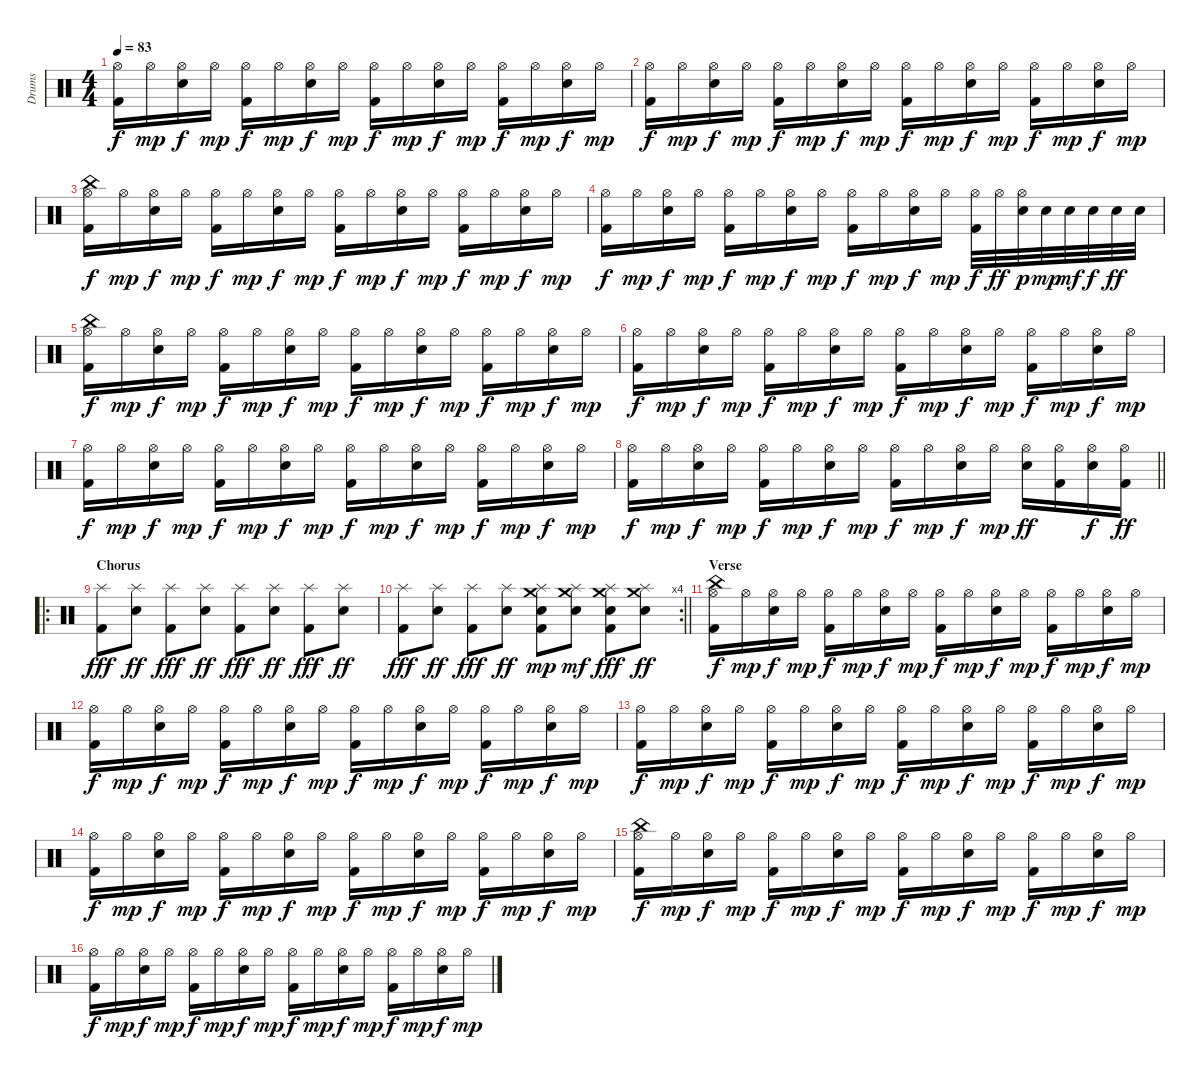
\track ("Drums" "Drums") {instrument percussion}
\staff {score}
\articulation defaults
\ts (4 4)
\tempo 83
\clef neutral
\ks aminor
("Hi-Hat (open)" "Kick (hit) 2").16{dy f} "Hi-Hat (open)".16{dy mp} ("Hi-Hat (open)" "Snare (hit) 2").16{dy f} "Hi-Hat (open)".16{dy mp} ("Hi-Hat (open)" "Kick (hit) 2").16{dy f} "Hi-Hat (open)".16{dy mp} ("Hi-Hat (open)" "Snare (hit) 2").16{dy f} "Hi-Hat (open)".16{dy mp} ("Hi-Hat (open)" "Kick (hit) 2").16{dy f} "Hi-Hat (open)".16{dy mp} ("Hi-Hat (open)" "Snare (hit) 2").16{dy f} "Hi-Hat (open)".16{dy mp} ("Hi-Hat (open)" "Kick (hit) 2").16{dy f} "Hi-Hat (open)".16{dy mp} ("Hi-Hat (open)" "Snare (hit) 2").16{dy f} "Hi-Hat (open)".16{dy mp} |
("Hi-Hat (open)" "Kick (hit) 2").16{dy f} "Hi-Hat (open)".16{dy mp} ("Hi-Hat (open)" "Snare (hit) 2").16{dy f} "Hi-Hat (open)".16{dy mp} ("Hi-Hat (open)" "Kick (hit) 2").16{dy f} "Hi-Hat (open)".16{dy mp} ("Hi-Hat (open)" "Snare (hit) 2").16{dy f} "Hi-Hat (open)".16{dy mp} ("Hi-Hat (open)" "Kick (hit) 2").16{dy f} "Hi-Hat (open)".16{dy mp} ("Hi-Hat (open)" "Snare (hit) 2").16{dy f} "Hi-Hat (open)".16{dy mp} ("Hi-Hat (open)" "Kick (hit) 2").16{dy f} "Hi-Hat (open)".16{dy mp} ("Hi-Hat (open)" "Snare (hit) 2").16{dy f} "Hi-Hat (open)".16{dy mp} |
("Hi-Hat (open)" "Kick (hit) 2" "China (hit)").16{dy f} "Hi-Hat (open)".16{dy mp} ("Hi-Hat (open)" "Snare (hit) 2").16{dy f} "Hi-Hat (open)".16{dy mp} ("Hi-Hat (open)" "Kick (hit) 2").16{dy f} "Hi-Hat (open)".16{dy mp} ("Hi-Hat (open)" "Snare (hit) 2").16{dy f} "Hi-Hat (open)".16{dy mp} ("Hi-Hat (open)" "Kick (hit) 2").16{dy f} "Hi-Hat (open)".16{dy mp} ("Hi-Hat (open)" "Snare (hit) 2").16{dy f} "Hi-Hat (open)".16{dy mp} ("Hi-Hat (open)" "Kick (hit) 2").16{dy f} "Hi-Hat (open)".16{dy mp} ("Hi-Hat (open)" "Snare (hit) 2").16{dy f} "Hi-Hat (open)".16{dy mp} |
("Hi-Hat (open)" "Kick (hit) 2").16{dy f} "Hi-Hat (open)".16{dy mp} ("Hi-Hat (open)" "Snare (hit) 2").16{dy f} "Hi-Hat (open)".16{dy mp} ("Hi-Hat (open)" "Kick (hit) 2").16{dy f} "Hi-Hat (open)".16{dy mp} ("Hi-Hat (open)" "Snare (hit) 2").16{dy f} "Hi-Hat (open)".16{dy mp} ("Hi-Hat (open)" "Kick (hit) 2").16{dy f} "Hi-Hat (open)".16{dy mp} ("Hi-Hat (open)" "Snare (hit) 2").16{dy f} "Hi-Hat (open)".16{dy mp} ("Hi-Hat (open)" "Kick (hit) 2").32{dy f} "Hi-Hat (open)".32{dy ff} ("Hi-Hat (open)" "Snare (hit) 2").32{dy p} "Snare (hit) 2".32{dy mp} "Snare (hit) 2".32{dy mf} "Snare (hit) 2".32{dy f} "Snare (hit) 2".32{dy ff} "Snare (hit) 2".32 |
("Hi-Hat (open)" "Kick (hit) 2" "China (hit)").16{dy f} "Hi-Hat (open)".16{dy mp} ("Hi-Hat (open)" "Snare (hit) 2").16{dy f} "Hi-Hat (open)".16{dy mp} ("Hi-Hat (open)" "Kick (hit) 2").16{dy f} "Hi-Hat (open)".16{dy mp} ("Hi-Hat (open)" "Snare (hit) 2").16{dy f} "Hi-Hat (open)".16{dy mp} ("Hi-Hat (open)" "Kick (hit) 2").16{dy f} "Hi-Hat (open)".16{dy mp} ("Hi-Hat (open)" "Snare (hit) 2").16{dy f} "Hi-Hat (open)".16{dy mp} ("Hi-Hat (open)" "Kick (hit) 2").16{dy f} "Hi-Hat (open)".16{dy mp} ("Hi-Hat (open)" "Snare (hit) 2").16{dy f} "Hi-Hat (open)".16{dy mp} |
("Hi-Hat (open)" "Kick (hit) 2").16{dy f} "Hi-Hat (open)".16{dy mp} ("Hi-Hat (open)" "Snare (hit) 2").16{dy f} "Hi-Hat (open)".16{dy mp} ("Hi-Hat (open)" "Kick (hit) 2").16{dy f} "Hi-Hat (open)".16{dy mp} ("Hi-Hat (open)" "Snare (hit) 2").16{dy f} "Hi-Hat (open)".16{dy mp} ("Hi-Hat (open)" "Kick (hit) 2").16{dy f} "Hi-Hat (open)".16{dy mp} ("Hi-Hat (open)" "Snare (hit) 2").16{dy f} "Hi-Hat (open)".16{dy mp} ("Hi-Hat (open)" "Kick (hit) 2").16{dy f} "Hi-Hat (open)".16{dy mp} ("Hi-Hat (open)" "Snare (hit) 2").16{dy f} "Hi-Hat (open)".16{dy mp} |
("Hi-Hat (open)" "Kick (hit) 2").16{dy f} "Hi-Hat (open)".16{dy mp} ("Hi-Hat (open)" "Snare (hit) 2").16{dy f} "Hi-Hat (open)".16{dy mp} ("Hi-Hat (open)" "Kick (hit) 2").16{dy f} "Hi-Hat (open)".16{dy mp} ("Hi-Hat (open)" "Snare (hit) 2").16{dy f} "Hi-Hat (open)".16{dy mp} ("Hi-Hat (open)" "Kick (hit) 2").16{dy f} "Hi-Hat (open)".16{dy mp} ("Hi-Hat (open)" "Snare (hit) 2").16{dy f} "Hi-Hat (open)".16{dy mp} ("Hi-Hat (open)" "Kick (hit) 2").16{dy f} "Hi-Hat (open)".16{dy mp} ("Hi-Hat (open)" "Snare (hit) 2").16{dy f} "Hi-Hat (open)".16{dy mp} |
\barLineRight lightlight
("Hi-Hat (open)" "Kick (hit) 2").16{dy f} "Hi-Hat (open)".16{dy mp} ("Hi-Hat (open)" "Snare (hit) 2").16{dy f} "Hi-Hat (open)".16{dy mp} ("Hi-Hat (open)" "Kick (hit) 2").16{dy f} "Hi-Hat (open)".16{dy mp} ("Hi-Hat (open)" "Snare (hit) 2").16{dy f} "Hi-Hat (open)".16{dy mp} ("Hi-Hat (open)" "Kick (hit) 2").16{dy f} "Hi-Hat (open)".16{dy mp} ("Hi-Hat (open)" "Snare (hit) 2").16{dy f} "Hi-Hat (open)".16{dy mp} ("Hi-Hat (open)" "Snare (hit) 2").16{dy ff} ("Hi-Hat (open)" "Kick (hit) 2").16 ("Hi-Hat (open)" "Snare (hit) 2").16{dy f} ("Hi-Hat (open)" "Kick (hit) 2").16{dy ff} |
\ro
\section ("" "Chorus")
("Splash (hit)" "Kick (hit) 2").8{dy fff volume 12} ("Splash (hit)" "Snare (hit) 2").8{dy ff} ("Splash (hit)" "Kick (hit) 2").8{dy fff} ("Splash (hit)" "Snare (hit) 2").8{dy ff} ("Splash (hit)" "Kick (hit) 2").8{dy fff} ("Splash (hit)" "Snare (hit) 2").8{dy ff} ("Splash (hit)" "Kick (hit) 2").8{dy fff} ("Splash (hit)" "Snare (hit) 2").8{dy ff} |
\rc 4
\barLineRight lightlight
("Splash (hit)" "Kick (hit) 2").8{dy fff} ("Splash (hit)" "Snare (hit) 2").8{dy ff} ("Splash (hit)" "Kick (hit) 2").8{dy fff} ("Splash (hit)" "Snare (hit) 2").8{dy ff} ("Splash (hit)" "Kick (hit) 2" "Snare (hit) 2" "Crash medium (hit)").8{dy mp} ("Splash (hit)" "Snare (hit) 2" "Crash medium (hit)").8{dy mf} ("Splash (hit)" "Kick (hit) 2" "Snare (hit) 2" "Crash medium (hit)").8{dy fff} ("Splash (hit)" "Snare (hit) 2" "Crash medium (hit)").8{dy ff} |
\section ("" "Verse")
("Hi-Hat (open)" "Kick (hit) 2" "China (hit)").16{dy f volume 10} "Hi-Hat (open)".16{dy mp} ("Hi-Hat (open)" "Snare (hit) 2").16{dy f} "Hi-Hat (open)".16{dy mp} ("Hi-Hat (open)" "Kick (hit) 2").16{dy f} "Hi-Hat (open)".16{dy mp} ("Hi-Hat (open)" "Snare (hit) 2").16{dy f} "Hi-Hat (open)".16{dy mp} ("Hi-Hat (open)" "Kick (hit) 2").16{dy f} "Hi-Hat (open)".16{dy mp} ("Hi-Hat (open)" "Snare (hit) 2").16{dy f} "Hi-Hat (open)".16{dy mp} ("Hi-Hat (open)" "Kick (hit) 2").16{dy f} "Hi-Hat (open)".16{dy mp} ("Hi-Hat (open)" "Snare (hit) 2").16{dy f} "Hi-Hat (open)".16{dy mp} |
("Hi-Hat (open)" "Kick (hit) 2").16{dy f} "Hi-Hat (open)".16{dy mp} ("Hi-Hat (open)" "Snare (hit) 2").16{dy f} "Hi-Hat (open)".16{dy mp} ("Hi-Hat (open)" "Kick (hit) 2").16{dy f} "Hi-Hat (open)".16{dy mp} ("Hi-Hat (open)" "Snare (hit) 2").16{dy f} "Hi-Hat (open)".16{dy mp} ("Hi-Hat (open)" "Kick (hit) 2").16{dy f} "Hi-Hat (open)".16{dy mp} ("Hi-Hat (open)" "Snare (hit) 2").16{dy f} "Hi-Hat (open)".16{dy mp} ("Hi-Hat (open)" "Kick (hit) 2").16{dy f} "Hi-Hat (open)".16{dy mp} ("Hi-Hat (open)" "Snare (hit) 2").16{dy f} "Hi-Hat (open)".16{dy mp} |
("Hi-Hat (open)" "Kick (hit) 2").16{dy f} "Hi-Hat (open)".16{dy mp} ("Hi-Hat (open)" "Snare (hit) 2").16{dy f} "Hi-Hat (open)".16{dy mp} ("Hi-Hat (open)" "Kick (hit) 2").16{dy f} "Hi-Hat (open)".16{dy mp} ("Hi-Hat (open)" "Snare (hit) 2").16{dy f} "Hi-Hat (open)".16{dy mp} ("Hi-Hat (open)" "Kick (hit) 2").16{dy f} "Hi-Hat (open)".16{dy mp} ("Hi-Hat (open)" "Snare (hit) 2").16{dy f} "Hi-Hat (open)".16{dy mp} ("Hi-Hat (open)" "Kick (hit) 2").16{dy f} "Hi-Hat (open)".16{dy mp} ("Hi-Hat (open)" "Snare (hit) 2").16{dy f} "Hi-Hat (open)".16{dy mp} |
("Hi-Hat (open)" "Kick (hit) 2").16{dy f} "Hi-Hat (open)".16{dy mp} ("Hi-Hat (open)" "Snare (hit) 2").16{dy f} "Hi-Hat (open)".16{dy mp} ("Hi-Hat (open)" "Kick (hit) 2").16{dy f} "Hi-Hat (open)".16{dy mp} ("Hi-Hat (open)" "Snare (hit) 2").16{dy f} "Hi-Hat (open)".16{dy mp} ("Hi-Hat (open)" "Kick (hit) 2").16{dy f} "Hi-Hat (open)".16{dy mp} ("Hi-Hat (open)" "Snare (hit) 2").16{dy f} "Hi-Hat (open)".16{dy mp} ("Hi-Hat (open)" "Kick (hit) 2").16{dy f} "Hi-Hat (open)".16{dy mp} ("Hi-Hat (open)" "Snare (hit) 2").16{dy f} "Hi-Hat (open)".16{dy mp} |
("Hi-Hat (open)" "Kick (hit) 2" "China (hit)").16{dy f} "Hi-Hat (open)".16{dy mp} ("Hi-Hat (open)" "Snare (hit) 2").16{dy f} "Hi-Hat (open)".16{dy mp} ("Hi-Hat (open)" "Kick (hit) 2").16{dy f} "Hi-Hat (open)".16{dy mp} ("Hi-Hat (open)" "Snare (hit) 2").16{dy f} "Hi-Hat (open)".16{dy mp} ("Hi-Hat (open)" "Kick (hit) 2").16{dy f} "Hi-Hat (open)".16{dy mp} ("Hi-Hat (open)" "Snare (hit) 2").16{dy f} "Hi-Hat (open)".16{dy mp} ("Hi-Hat (open)" "Kick (hit) 2").16{dy f} "Hi-Hat (open)".16{dy mp} ("Hi-Hat (open)" "Snare (hit) 2").16{dy f} "Hi-Hat (open)".16{dy mp} |
("Hi-Hat (open)" "Kick (hit) 2").16{dy f} "Hi-Hat (open)".16{dy mp} ("Hi-Hat (open)" "Snare (hit) 2").16{dy f} "Hi-Hat (open)".16{dy mp} ("Hi-Hat (open)" "Kick (hit) 2").16{dy f} "Hi-Hat (open)".16{dy mp} ("Hi-Hat (open)" "Snare (hit) 2").16{dy f} "Hi-Hat (open)".16{dy mp} ("Hi-Hat (open)" "Kick (hit) 2").16{dy f} "Hi-Hat (open)".16{dy mp} ("Hi-Hat (open)" "Snare (hit) 2").16{dy f} "Hi-Hat (open)".16{dy mp} ("Hi-Hat (open)" "Kick (hit) 2").16{dy f} "Hi-Hat (open)".16{dy mp} ("Hi-Hat (open)" "Snare (hit) 2").16{dy f} "Hi-Hat (open)".16{dy mp}
